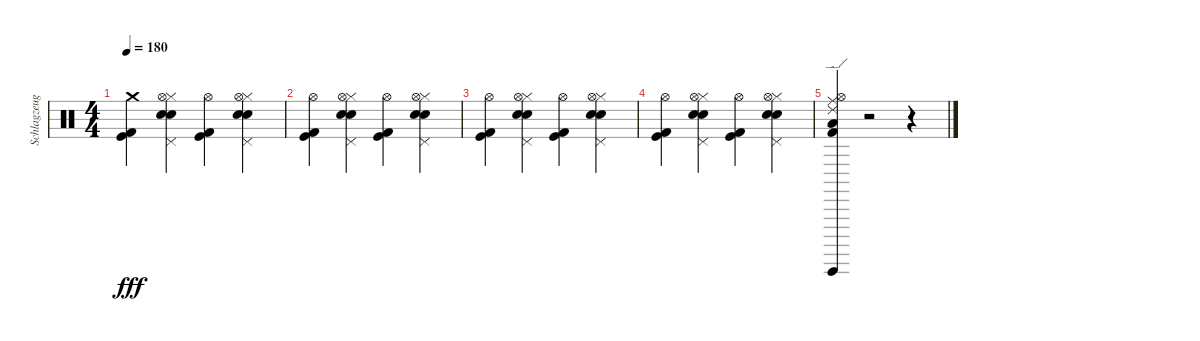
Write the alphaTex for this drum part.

\track ("Schlagzeug" "Schlagzeug") {instrument percussion}
\staff {score}
\articulation defaults
\ts (4 4)
\tempo 180
\clef neutral
\ks c
("Kick (hit)" "Kick (hit) 2" "Crash medium (hit)").4{dy fff} ("Electric Snare (hit)" "Hi-Hat (closed)" "Snare (hit) 2" "Pedal Hi-Hat (hit)" "Hi-Hat (open)").4 ("Kick (hit)" "Kick (hit) 2" "Hi-Hat (open)").4 ("Electric Snare (hit)" "Hi-Hat (closed)" "Snare (hit) 2" "Pedal Hi-Hat (hit)" "Hi-Hat (open)").4 |
("Kick (hit)" "Kick (hit) 2" "Hi-Hat (open)").4 ("Electric Snare (hit)" "Hi-Hat (closed)" "Snare (hit) 2" "Pedal Hi-Hat (hit)" "Hi-Hat (open)").4 ("Kick (hit)" "Kick (hit) 2" "Hi-Hat (open)").4 ("Electric Snare (hit)" "Hi-Hat (closed)" "Snare (hit) 2" "Pedal Hi-Hat (hit)" "Hi-Hat (open)").4 |
("Kick (hit)" "Kick (hit) 2" "Hi-Hat (open)").4 ("Electric Snare (hit)" "Hi-Hat (closed)" "Snare (hit) 2" "Pedal Hi-Hat (hit)" "Hi-Hat (open)").4 ("Kick (hit)" "Kick (hit) 2" "Hi-Hat (open)").4 ("Electric Snare (hit)" "Hi-Hat (closed)" "Snare (hit) 2" "Pedal Hi-Hat (hit)" "Hi-Hat (open)").4 |
("Kick (hit)" "Kick (hit) 2" "Hi-Hat (open)").4 ("Electric Snare (hit)" "Hi-Hat (closed)" "Snare (hit) 2" "Pedal Hi-Hat (hit)" "Hi-Hat (open)").4 ("Kick (hit)" "Kick (hit) 2" "Hi-Hat (open)").4 ("Electric Snare (hit)" "Hi-Hat (closed)" "Snare (hit) 2" "Pedal Hi-Hat (hit)" "Hi-Hat (open)").4 |
("Kick (hit) 2" "Low Tom (hit)" "Guiro (hit)" "Ride (middle)" "Ride (edge) 2" "Hi-Hat (open)").4 r.2 r.4
